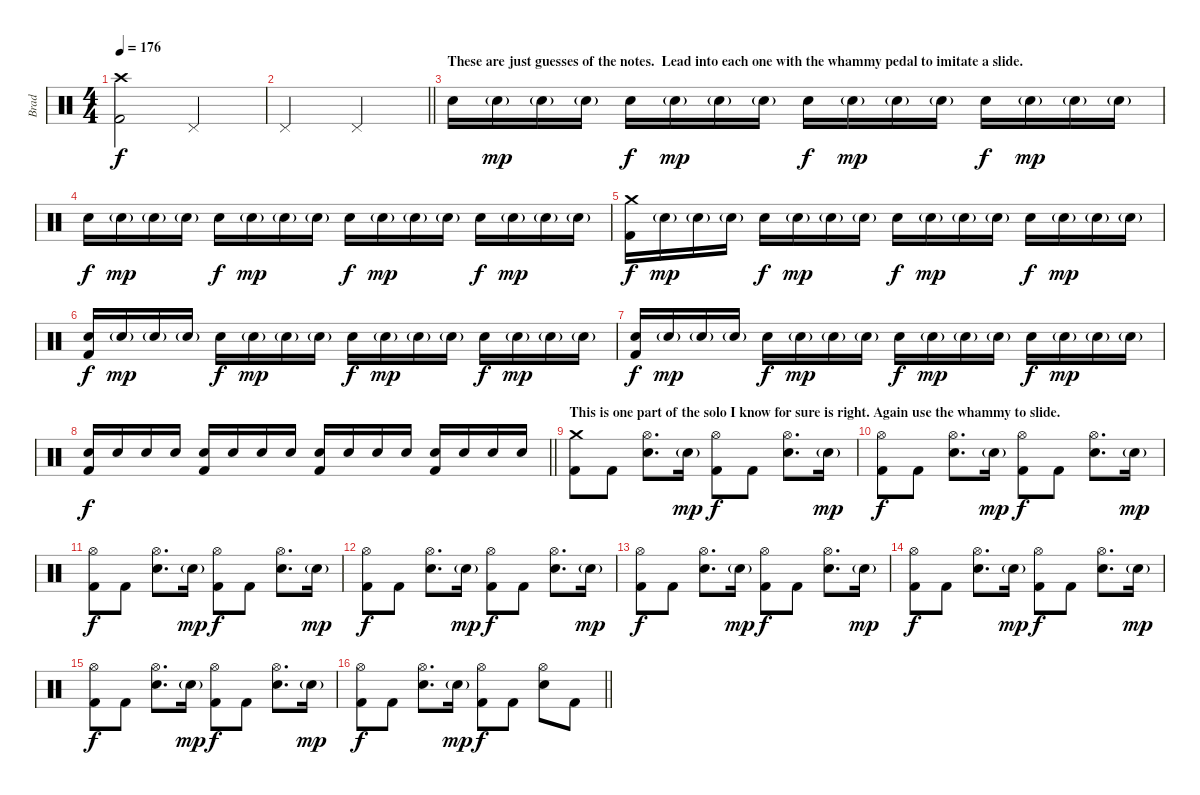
\track ("Brad" "Brad") {instrument percussion}
\staff {score}
\articulation defaults
\ts (4 4)
\tempo 176
\clef neutral
\ks c
("Crash high (hit)" "Kick (hit) 2").2{dy f} "Pedal Hi-Hat (hit)".2 |
\barLineRight lightlight "Pedal Hi-Hat (hit)".2 "Pedal Hi-Hat (hit)".2
|
\section ("" "These are just guesses of the notes.  Lead into each one with the whammy pedal to imitate a slide.")
"Electric Snare (hit)".16 "Electric Snare (hit)"{g}.16{dy mp} "Electric Snare (hit)"{g}.16 "Electric Snare (hit)"{g}.16 "Electric Snare (hit)".16{dy f} "Electric Snare (hit)"{g}.16{dy mp} "Electric Snare (hit)"{g}.16 "Electric Snare (hit)"{g}.16 "Electric Snare (hit)".16{dy f} "Electric Snare (hit)"{g}.16{dy mp} "Electric Snare (hit)"{g}.16 "Electric Snare (hit)"{g}.16 "Electric Snare (hit)".16{dy f} "Electric Snare (hit)"{g}.16{dy mp} "Electric Snare (hit)"{g}.16 "Electric Snare (hit)"{g}.16 |
"Electric Snare (hit)".16{dy f} "Electric Snare (hit)"{g}.16{dy mp} "Electric Snare (hit)"{g}.16 "Electric Snare (hit)"{g}.16 "Electric Snare (hit)".16{dy f} "Electric Snare (hit)"{g}.16{dy mp} "Electric Snare (hit)"{g}.16 "Electric Snare (hit)"{g}.16 "Electric Snare (hit)".16{dy f} "Electric Snare (hit)"{g}.16{dy mp} "Electric Snare (hit)"{g}.16 "Electric Snare (hit)"{g}.16 "Electric Snare (hit)".16{dy f} "Electric Snare (hit)"{g}.16{dy mp} "Electric Snare (hit)"{g}.16 "Electric Snare (hit)"{g}.16 |
("Crash medium (hit)" "Kick (hit) 2").16{dy f} "Electric Snare (hit)"{g}.16{dy mp} "Electric Snare (hit)"{g}.16 "Electric Snare (hit)"{g}.16 "Electric Snare (hit)".16{dy f} "Electric Snare (hit)"{g}.16{dy mp} "Electric Snare (hit)"{g}.16 "Electric Snare (hit)"{g}.16 "Electric Snare (hit)".16{dy f} "Electric Snare (hit)"{g}.16{dy mp} "Electric Snare (hit)"{g}.16 "Electric Snare (hit)"{g}.16 "Electric Snare (hit)".16{dy f} "Electric Snare (hit)"{g}.16{dy mp} "Electric Snare (hit)"{g}.16 "Electric Snare (hit)"{g}.16 |
("Electric Snare (hit)" "Kick (hit) 2").16{dy f} "Electric Snare (hit)"{g}.16{dy mp} "Electric Snare (hit)"{g}.16 "Electric Snare (hit)"{g}.16 "Electric Snare (hit)".16{dy f} "Electric Snare (hit)"{g}.16{dy mp} "Electric Snare (hit)"{g}.16 "Electric Snare (hit)"{g}.16 "Electric Snare (hit)".16{dy f} "Electric Snare (hit)"{g}.16{dy mp} "Electric Snare (hit)"{g}.16 "Electric Snare (hit)"{g}.16 "Electric Snare (hit)".16{dy f} "Electric Snare (hit)"{g}.16{dy mp} "Electric Snare (hit)"{g}.16 "Electric Snare (hit)"{g}.16 |
("Electric Snare (hit)" "Kick (hit) 2").16{dy f} "Electric Snare (hit)"{g}.16{dy mp} "Electric Snare (hit)"{g}.16 "Electric Snare (hit)"{g}.16 "Electric Snare (hit)".16{dy f} "Electric Snare (hit)"{g}.16{dy mp} "Electric Snare (hit)"{g}.16 "Electric Snare (hit)"{g}.16 "Electric Snare (hit)".16{dy f} "Electric Snare (hit)"{g}.16{dy mp} "Electric Snare (hit)"{g}.16 "Electric Snare (hit)"{g}.16 "Electric Snare (hit)".16{dy f} "Electric Snare (hit)"{g}.16{dy mp} "Electric Snare (hit)"{g}.16 "Electric Snare (hit)"{g}.16 |
\barLineRight lightlight
("Electric Snare (hit)" "Kick (hit) 2").16{dy f} "Electric Snare (hit)".16 "Electric Snare (hit)".16 "Electric Snare (hit)".16 ("Electric Snare (hit)" "Kick (hit) 2").16 "Electric Snare (hit)".16 "Electric Snare (hit)".16 "Electric Snare (hit)".16 ("Electric Snare (hit)" "Kick (hit) 2").16 "Electric Snare (hit)".16 "Electric Snare (hit)".16 "Electric Snare (hit)".16 ("Electric Snare (hit)" "Kick (hit) 2").16 "Electric Snare (hit)".16 "Electric Snare (hit)".16 "Electric Snare (hit)".16 |
\section ("" "This is one part of the solo I know for sure is right. Again use the whammy to slide.")
("Crash medium (hit)" "Kick (hit) 2").8 "Kick (hit) 2".8 ("Hi-Hat (open)" "Electric Snare (hit)").8{d} "Electric Snare (hit)"{g}.16{dy mp} ("Hi-Hat (open)" "Kick (hit) 2").8{dy f} "Kick (hit) 2".8 ("Hi-Hat (open)" "Electric Snare (hit)").8{d} "Electric Snare (hit)"{g}.16{dy mp} |
("Hi-Hat (open)" "Kick (hit) 2").8{dy f} "Kick (hit) 2".8 ("Hi-Hat (open)" "Electric Snare (hit)").8{d} "Electric Snare (hit)"{g}.16{dy mp} ("Hi-Hat (open)" "Kick (hit) 2").8{dy f} "Kick (hit) 2".8 ("Hi-Hat (open)" "Electric Snare (hit)").8{d} "Electric Snare (hit)"{g}.16{dy mp} |
("Hi-Hat (open)" "Kick (hit) 2").8{dy f} "Kick (hit) 2".8 ("Hi-Hat (open)" "Electric Snare (hit)").8{d} "Electric Snare (hit)"{g}.16{dy mp} ("Hi-Hat (open)" "Kick (hit) 2").8{dy f} "Kick (hit) 2".8 ("Hi-Hat (open)" "Electric Snare (hit)").8{d} "Electric Snare (hit)"{g}.16{dy mp} |
("Hi-Hat (open)" "Kick (hit) 2").8{dy f} "Kick (hit) 2".8 ("Hi-Hat (open)" "Electric Snare (hit)").8{d} "Electric Snare (hit)"{g}.16{dy mp} ("Hi-Hat (open)" "Kick (hit) 2").8{dy f} "Kick (hit) 2".8 ("Hi-Hat (open)" "Electric Snare (hit)").8{d} "Electric Snare (hit)"{g}.16{dy mp} |
("Hi-Hat (open)" "Kick (hit) 2").8{dy f} "Kick (hit) 2".8 ("Hi-Hat (open)" "Electric Snare (hit)").8{d} "Electric Snare (hit)"{g}.16{dy mp} ("Hi-Hat (open)" "Kick (hit) 2").8{dy f} "Kick (hit) 2".8 ("Hi-Hat (open)" "Electric Snare (hit)").8{d} "Electric Snare (hit)"{g}.16{dy mp} |
("Hi-Hat (open)" "Kick (hit) 2").8{dy f} "Kick (hit) 2".8 ("Hi-Hat (open)" "Electric Snare (hit)").8{d} "Electric Snare (hit)"{g}.16{dy mp} ("Hi-Hat (open)" "Kick (hit) 2").8{dy f} "Kick (hit) 2".8 ("Hi-Hat (open)" "Electric Snare (hit)").8{d} "Electric Snare (hit)"{g}.16{dy mp} |
("Hi-Hat (open)" "Kick (hit) 2").8{dy f} "Kick (hit) 2".8 ("Hi-Hat (open)" "Electric Snare (hit)").8{d} "Electric Snare (hit)"{g}.16{dy mp} ("Hi-Hat (open)" "Kick (hit) 2").8{dy f} "Kick (hit) 2".8 ("Hi-Hat (open)" "Electric Snare (hit)").8{d} "Electric Snare (hit)"{g}.16{dy mp} |
\barLineRight lightlight
("Hi-Hat (open)" "Kick (hit) 2").8{dy f} "Kick (hit) 2".8 ("Hi-Hat (open)" "Electric Snare (hit)").8{d} "Electric Snare (hit)"{g}.16{dy mp} ("Hi-Hat (open)" "Kick (hit) 2").8{dy f} "Kick (hit) 2".8 ("Hi-Hat (open)" "Electric Snare (hit)").8 "Kick (hit) 2".8
